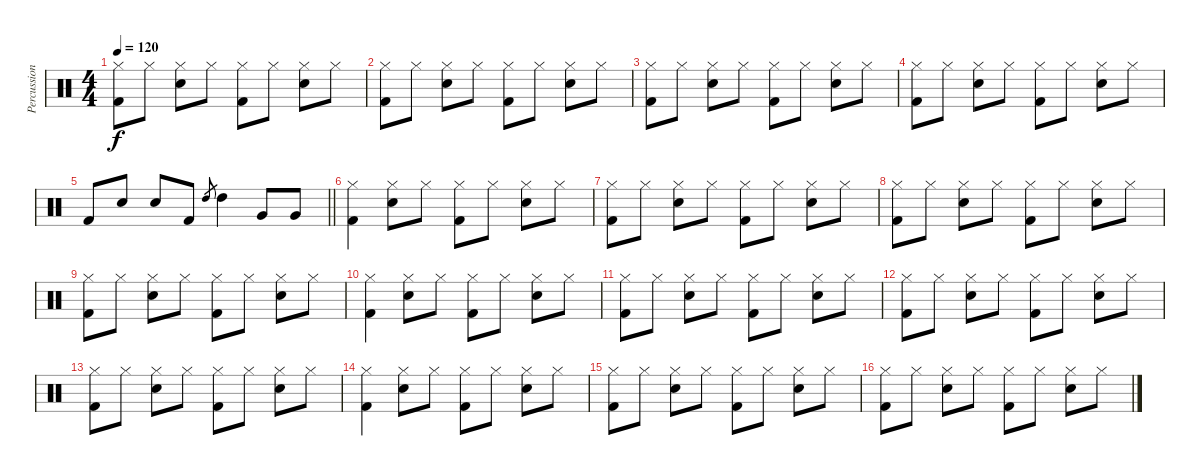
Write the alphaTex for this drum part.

\track ("Percussion" "Percussion") {instrument percussion}
\staff {score}
\articulation defaults
\ts (4 4)
\tempo 120
\clef neutral
\ks c
("Hi-Hat (closed)" "Kick (hit) 2").8{dy f} "Hi-Hat (closed)".8 ("Hi-Hat (closed)" "Snare (hit) 2").8 "Hi-Hat (closed)".8 ("Hi-Hat (closed)" "Kick (hit) 2").8 "Hi-Hat (closed)".8 ("Hi-Hat (closed)" "Snare (hit) 2").8 "Hi-Hat (closed)".8 |
("Hi-Hat (closed)" "Kick (hit) 2").8 "Hi-Hat (closed)".8 ("Hi-Hat (closed)" "Snare (hit) 2").8 "Hi-Hat (closed)".8 ("Hi-Hat (closed)" "Kick (hit) 2").8 "Hi-Hat (closed)".8 ("Hi-Hat (closed)" "Snare (hit) 2").8 "Hi-Hat (closed)".8 |
("Hi-Hat (closed)" "Kick (hit) 2").8 "Hi-Hat (closed)".8 ("Hi-Hat (closed)" "Snare (hit) 2").8 "Hi-Hat (closed)".8 ("Hi-Hat (closed)" "Kick (hit) 2").8 "Hi-Hat (closed)".8 ("Hi-Hat (closed)" "Snare (hit) 2").8 "Hi-Hat (closed)".8 |
("Hi-Hat (closed)" "Kick (hit) 2").8 "Hi-Hat (closed)".8 ("Hi-Hat (closed)" "Snare (hit) 2").8 "Hi-Hat (closed)".8 ("Hi-Hat (closed)" "Kick (hit) 2").8 "Hi-Hat (closed)".8 ("Hi-Hat (closed)" "Snare (hit) 2").8 "Hi-Hat (closed)".8 |
\barLineRight lightlight "Kick (hit) 2".8 "Snare (hit) 2".8 "Snare (hit) 2".8 "Kick (hit) 2".8 "High Tom (hit)".8{gr} "High Tom (hit)".4 "Very Low Tom (hit)".8 "Very Low Tom (hit)".8
|
("Hi-Hat (closed)" "Kick (hit) 2").4 ("Hi-Hat (closed)" "Snare (hit) 2").8 "Hi-Hat (closed)".8 ("Hi-Hat (closed)" "Kick (hit) 2").8 "Hi-Hat (closed)".8 ("Hi-Hat (closed)" "Snare (hit) 2").8 "Hi-Hat (closed)".8 |
("Hi-Hat (closed)" "Kick (hit) 2").8 "Hi-Hat (closed)".8 ("Hi-Hat (closed)" "Snare (hit) 2").8 "Hi-Hat (closed)".8 ("Hi-Hat (closed)" "Kick (hit) 2").8 "Hi-Hat (closed)".8 ("Hi-Hat (closed)" "Snare (hit) 2").8 "Hi-Hat (closed)".8 |
("Hi-Hat (closed)" "Kick (hit) 2").8 "Hi-Hat (closed)".8 ("Hi-Hat (closed)" "Snare (hit) 2").8 "Hi-Hat (closed)".8 ("Hi-Hat (closed)" "Kick (hit) 2").8 "Hi-Hat (closed)".8 ("Hi-Hat (closed)" "Snare (hit) 2").8 "Hi-Hat (closed)".8 |
("Hi-Hat (closed)" "Kick (hit) 2").8 "Hi-Hat (closed)".8 ("Hi-Hat (closed)" "Snare (hit) 2").8 "Hi-Hat (closed)".8 ("Hi-Hat (closed)" "Kick (hit) 2").8 "Hi-Hat (closed)".8 ("Hi-Hat (closed)" "Snare (hit) 2").8 "Hi-Hat (closed)".8 |
("Hi-Hat (closed)" "Kick (hit) 2").4 ("Hi-Hat (closed)" "Snare (hit) 2").8 "Hi-Hat (closed)".8 ("Hi-Hat (closed)" "Kick (hit) 2").8 "Hi-Hat (closed)".8 ("Hi-Hat (closed)" "Snare (hit) 2").8 "Hi-Hat (closed)".8 |
("Hi-Hat (closed)" "Kick (hit) 2").8 "Hi-Hat (closed)".8 ("Hi-Hat (closed)" "Snare (hit) 2").8 "Hi-Hat (closed)".8 ("Hi-Hat (closed)" "Kick (hit) 2").8 "Hi-Hat (closed)".8 ("Hi-Hat (closed)" "Snare (hit) 2").8 "Hi-Hat (closed)".8 |
("Hi-Hat (closed)" "Kick (hit) 2").8 "Hi-Hat (closed)".8 ("Hi-Hat (closed)" "Snare (hit) 2").8 "Hi-Hat (closed)".8 ("Hi-Hat (closed)" "Kick (hit) 2").8 "Hi-Hat (closed)".8 ("Hi-Hat (closed)" "Snare (hit) 2").8 "Hi-Hat (closed)".8 |
("Hi-Hat (closed)" "Kick (hit) 2").8 "Hi-Hat (closed)".8 ("Hi-Hat (closed)" "Snare (hit) 2").8 "Hi-Hat (closed)".8 ("Hi-Hat (closed)" "Kick (hit) 2").8 "Hi-Hat (closed)".8 ("Hi-Hat (closed)" "Snare (hit) 2").8 "Hi-Hat (closed)".8 |
("Hi-Hat (closed)" "Kick (hit) 2").4 ("Hi-Hat (closed)" "Snare (hit) 2").8 "Hi-Hat (closed)".8 ("Hi-Hat (closed)" "Kick (hit) 2").8 "Hi-Hat (closed)".8 ("Hi-Hat (closed)" "Snare (hit) 2").8 "Hi-Hat (closed)".8 |
("Hi-Hat (closed)" "Kick (hit) 2").8 "Hi-Hat (closed)".8 ("Hi-Hat (closed)" "Snare (hit) 2").8 "Hi-Hat (closed)".8 ("Hi-Hat (closed)" "Kick (hit) 2").8 "Hi-Hat (closed)".8 ("Hi-Hat (closed)" "Snare (hit) 2").8 "Hi-Hat (closed)".8 |
("Hi-Hat (closed)" "Kick (hit) 2").8 "Hi-Hat (closed)".8 ("Hi-Hat (closed)" "Snare (hit) 2").8 "Hi-Hat (closed)".8 ("Hi-Hat (closed)" "Kick (hit) 2").8 "Hi-Hat (closed)".8 ("Hi-Hat (closed)" "Snare (hit) 2").8 "Hi-Hat (closed)".8
